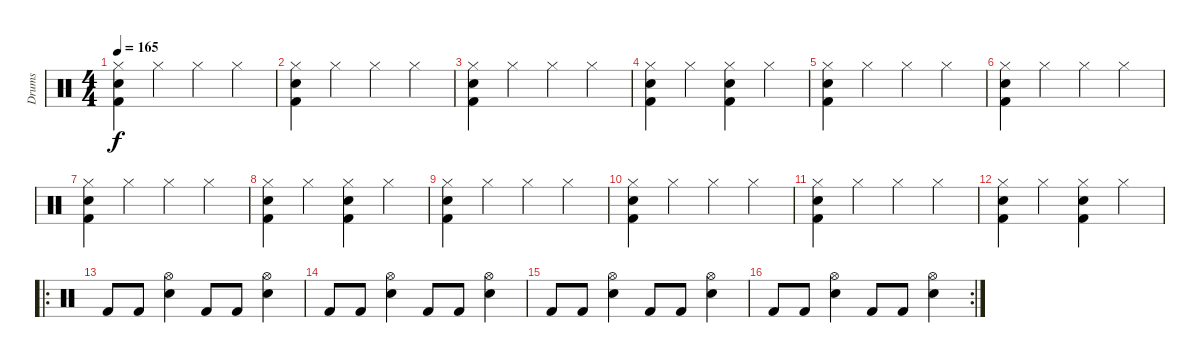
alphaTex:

\track ("Drums" "Drums") {instrument percussion}
\staff {score}
\articulation defaults
\ts (4 4)
\tempo 165
\clef neutral
\ks c
("Kick (hit) 2" "Snare (hit) 2" "Hi-Hat (closed)").4{dy f} "Hi-Hat (closed)".4 "Hi-Hat (closed)".4 "Hi-Hat (closed)".4 |
("Kick (hit) 2" "Snare (hit) 2" "Hi-Hat (closed)").4 "Hi-Hat (closed)".4 "Hi-Hat (closed)".4 "Hi-Hat (closed)".4 |
("Kick (hit) 2" "Snare (hit) 2" "Hi-Hat (closed)").4 "Hi-Hat (closed)".4 "Hi-Hat (closed)".4 "Hi-Hat (closed)".4 |
("Kick (hit) 2" "Snare (hit) 2" "Hi-Hat (closed)").4 "Hi-Hat (closed)".4 ("Kick (hit) 2" "Snare (hit) 2" "Hi-Hat (closed)").4 "Hi-Hat (closed)".4 |
("Kick (hit) 2" "Snare (hit) 2" "Hi-Hat (closed)").4 "Hi-Hat (closed)".4 "Hi-Hat (closed)".4 "Hi-Hat (closed)".4 |
("Kick (hit) 2" "Snare (hit) 2" "Hi-Hat (closed)").4 "Hi-Hat (closed)".4 "Hi-Hat (closed)".4 "Hi-Hat (closed)".4 |
("Kick (hit) 2" "Snare (hit) 2" "Hi-Hat (closed)").4 "Hi-Hat (closed)".4 "Hi-Hat (closed)".4 "Hi-Hat (closed)".4 |
("Kick (hit) 2" "Snare (hit) 2" "Hi-Hat (closed)").4 "Hi-Hat (closed)".4 ("Kick (hit) 2" "Snare (hit) 2" "Hi-Hat (closed)").4 "Hi-Hat (closed)".4 |
("Kick (hit) 2" "Snare (hit) 2" "Hi-Hat (closed)").4 "Hi-Hat (closed)".4 "Hi-Hat (closed)".4 "Hi-Hat (closed)".4 |
("Kick (hit) 2" "Snare (hit) 2" "Hi-Hat (closed)").4 "Hi-Hat (closed)".4 "Hi-Hat (closed)".4 "Hi-Hat (closed)".4 |
("Kick (hit) 2" "Snare (hit) 2" "Hi-Hat (closed)").4 "Hi-Hat (closed)".4 "Hi-Hat (closed)".4 "Hi-Hat (closed)".4 |
("Kick (hit) 2" "Snare (hit) 2" "Hi-Hat (closed)").4 "Hi-Hat (closed)".4 ("Kick (hit) 2" "Snare (hit) 2" "Hi-Hat (closed)").4 "Hi-Hat (closed)".4 |
\ro "Kick (hit) 2".8 "Kick (hit) 2".8
("Snare (hit) 2" "Hi-Hat (open)").4 "Kick (hit) 2".8 "Kick (hit) 2".8 ("Snare (hit) 2" "Hi-Hat (open)").4 |
"Kick (hit) 2".8 "Kick (hit) 2".8 ("Snare (hit) 2" "Hi-Hat (open)").4 "Kick (hit) 2".8 "Kick (hit) 2".8 ("Snare (hit) 2" "Hi-Hat (open)").4 |
"Kick (hit) 2".8 "Kick (hit) 2".8 ("Snare (hit) 2" "Hi-Hat (open)").4 "Kick (hit) 2".8 "Kick (hit) 2".8 ("Snare (hit) 2" "Hi-Hat (open)").4 |
\rc 2 "Kick (hit) 2".8 "Kick (hit) 2".8
("Snare (hit) 2" "Hi-Hat (open)").4 "Kick (hit) 2".8 "Kick (hit) 2".8 ("Snare (hit) 2" "Hi-Hat (open)").4
